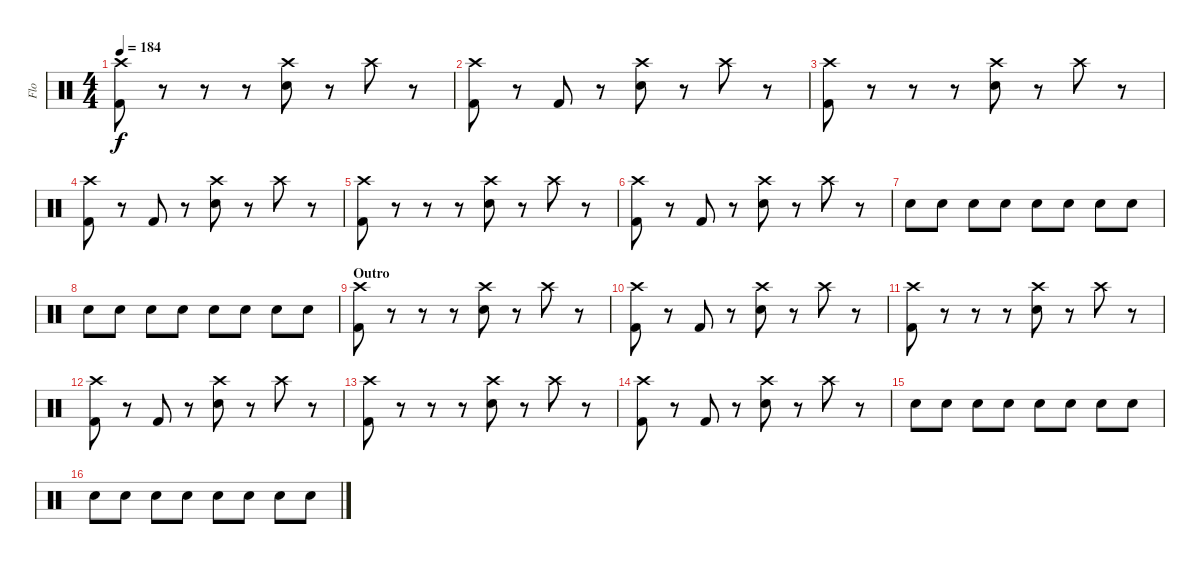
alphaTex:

\track ("Flo" "Flo") {instrument percussion}
\staff {score}
\articulation defaults
\ts (4 4)
\tempo 184
\clef neutral
\ks c
("Crash high (hit)" "Kick (hit) 2").8{dy f} r.8 r.8 r.8 ("Crash high (hit)" "Electric Snare (hit)").8 r.8 "Crash high (hit)".8 r.8 |
("Crash high (hit)" "Kick (hit) 2").8 r.8 "Kick (hit) 2".8 r.8 ("Crash high (hit)" "Electric Snare (hit)").8 r.8 "Crash high (hit)".8 r.8 |
("Crash high (hit)" "Kick (hit) 2").8 r.8 r.8 r.8 ("Crash high (hit)" "Electric Snare (hit)").8 r.8 "Crash high (hit)".8 r.8 |
("Crash high (hit)" "Kick (hit) 2").8 r.8 "Kick (hit) 2".8 r.8 ("Crash high (hit)" "Electric Snare (hit)").8 r.8 "Crash high (hit)".8 r.8 |
("Crash high (hit)" "Kick (hit) 2").8 r.8 r.8 r.8 ("Crash high (hit)" "Electric Snare (hit)").8 r.8 "Crash high (hit)".8 r.8 |
("Crash high (hit)" "Kick (hit) 2").8 r.8 "Kick (hit) 2".8 r.8 ("Crash high (hit)" "Electric Snare (hit)").8 r.8 "Crash high (hit)".8 r.8 |
"Electric Snare (hit)".8 "Electric Snare (hit)".8 "Electric Snare (hit)".8 "Electric Snare (hit)".8 "Electric Snare (hit)".8 "Electric Snare (hit)".8 "Electric Snare (hit)".8 "Electric Snare (hit)".8 |
"Electric Snare (hit)".8 "Electric Snare (hit)".8 "Electric Snare (hit)".8 "Electric Snare (hit)".8 "Electric Snare (hit)".8 "Electric Snare (hit)".8 "Electric Snare (hit)".8 "Electric Snare (hit)".8 |
\section ("" "Outro")
("Crash high (hit)" "Kick (hit) 2").8 r.8 r.8 r.8 ("Crash high (hit)" "Electric Snare (hit)").8 r.8 "Crash high (hit)".8 r.8 |
("Crash high (hit)" "Kick (hit) 2").8 r.8 "Kick (hit) 2".8 r.8 ("Crash high (hit)" "Electric Snare (hit)").8 r.8 "Crash high (hit)".8 r.8 |
("Crash high (hit)" "Kick (hit) 2").8 r.8 r.8 r.8 ("Crash high (hit)" "Electric Snare (hit)").8 r.8 "Crash high (hit)".8 r.8 |
("Crash high (hit)" "Kick (hit) 2").8 r.8 "Kick (hit) 2".8 r.8 ("Crash high (hit)" "Electric Snare (hit)").8 r.8 "Crash high (hit)".8 r.8 |
("Crash high (hit)" "Kick (hit) 2").8 r.8 r.8 r.8 ("Crash high (hit)" "Electric Snare (hit)").8 r.8 "Crash high (hit)".8 r.8 |
("Crash high (hit)" "Kick (hit) 2").8 r.8 "Kick (hit) 2".8 r.8 ("Crash high (hit)" "Electric Snare (hit)").8 r.8 "Crash high (hit)".8 r.8 |
"Electric Snare (hit)".8 "Electric Snare (hit)".8 "Electric Snare (hit)".8 "Electric Snare (hit)".8 "Electric Snare (hit)".8 "Electric Snare (hit)".8 "Electric Snare (hit)".8 "Electric Snare (hit)".8 |
"Electric Snare (hit)".8 "Electric Snare (hit)".8 "Electric Snare (hit)".8 "Electric Snare (hit)".8 "Electric Snare (hit)".8 "Electric Snare (hit)".8 "Electric Snare (hit)".8 "Electric Snare (hit)".8
